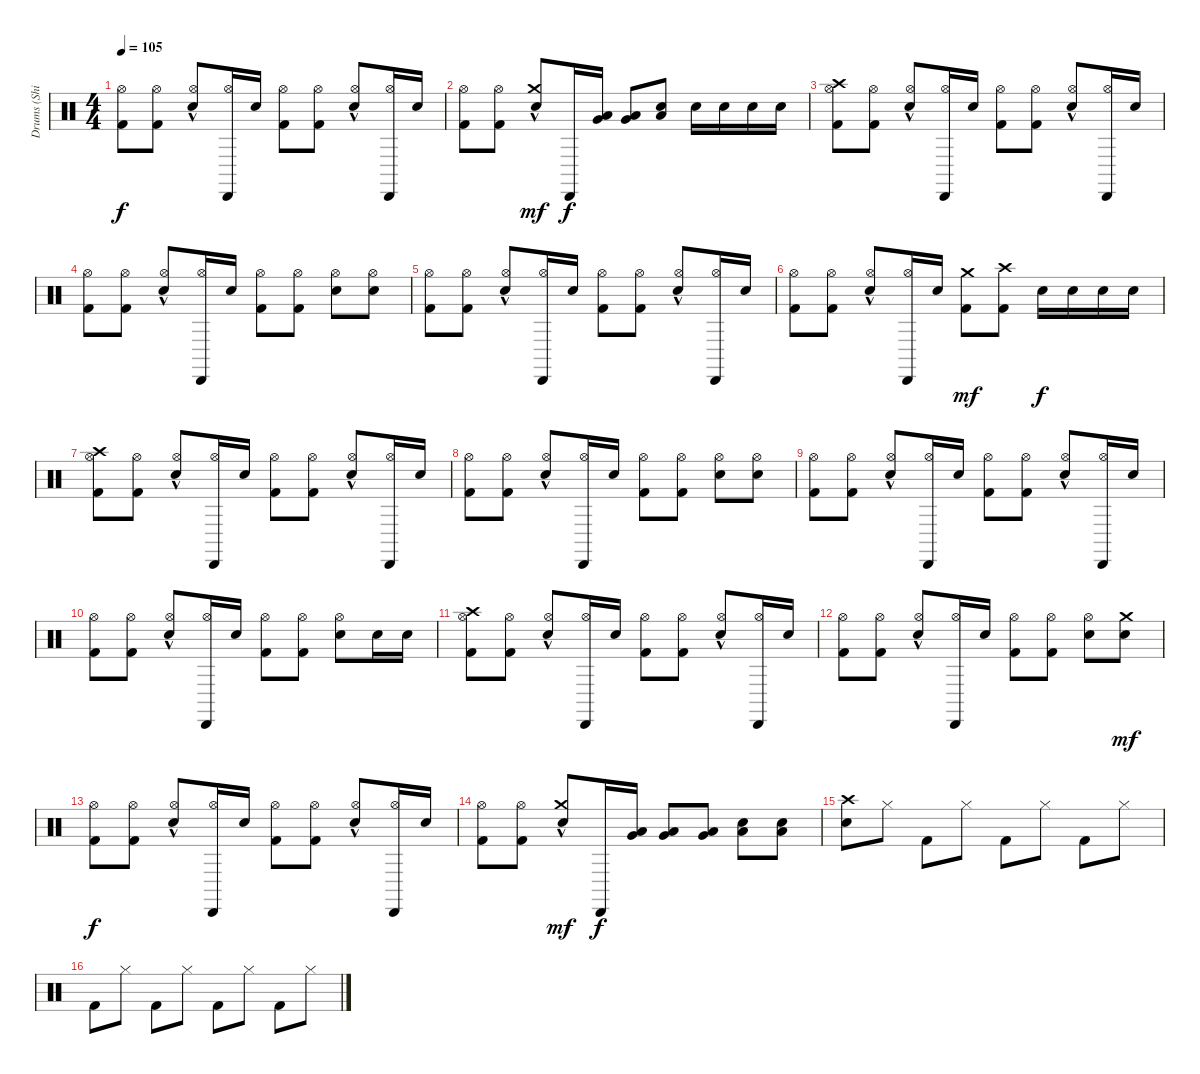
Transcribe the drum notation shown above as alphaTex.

\track ("Drums (Shinya)" "Drums (Shi") {instrument percussion}
\staff {score}
\articulation defaults
\ts (4 4)
\tempo 105
\clef neutral
\ks c
("Hi-Hat (open)" "Kick (hit) 2").8{dy f} ("Hi-Hat (open)" "Kick (hit) 2").8 ("Hi-Hat (open)" "Electric Snare (hit)"{hac}).8 ("Hi-Hat (open)" "Cabasa (hit)").16 "Electric Snare (hit)".16 ("Kick (hit) 2" "Hi-Hat (open)").8 ("Hi-Hat (open)" "Kick (hit) 2").8 ("Electric Snare (hit)"{hac} "Hi-Hat (open)").8 ("Hi-Hat (open)" "Cabasa (hit)").16 "Electric Snare (hit)".16 |
("Hi-Hat (open)" "Kick (hit) 2").8 ("Hi-Hat (open)" "Kick (hit) 2").8 ("Crash medium (hit)" "Electric Snare (hit)"{hac}).8{dy mf} "Cabasa (hit)".16{dy f} ("Low Tom (hit)" "Very Low Tom (hit)").16 ("Very Low Tom (hit)" "Low Floor Tom (hit)").8 ("Snare (hit) 2" "Low Floor Tom (hit)").8 "Electric Snare (hit)".16 "Electric Snare (hit)".16 "Electric Snare (hit)".16 "Electric Snare (hit)".16 |
("Hi-Hat (open)" "Crash high (hit)" "Kick (hit) 2").8 ("Hi-Hat (open)" "Kick (hit) 2").8 ("Hi-Hat (open)" "Electric Snare (hit)"{hac}).8 ("Hi-Hat (open)" "Cabasa (hit)").16 "Electric Snare (hit)".16 ("Kick (hit) 2" "Hi-Hat (open)").8 ("Hi-Hat (open)" "Kick (hit) 2").8 ("Electric Snare (hit)"{hac} "Hi-Hat (open)").8 ("Hi-Hat (open)" "Cabasa (hit)").16 "Electric Snare (hit)".16 |
("Hi-Hat (open)" "Kick (hit) 2").8 ("Hi-Hat (open)" "Kick (hit) 2").8 ("Electric Snare (hit)"{hac} "Hi-Hat (open)").8 ("Hi-Hat (open)" "Cabasa (hit)").16 "Electric Snare (hit)".16 ("Hi-Hat (open)" "Kick (hit) 2").8 ("Hi-Hat (open)" "Kick (hit) 2").8 ("Electric Snare (hit)" "Hi-Hat (open)").8 ("Hi-Hat (open)" "Electric Snare (hit)").8 |
("Kick (hit) 2" "Hi-Hat (open)").8 ("Hi-Hat (open)" "Kick (hit) 2").8 ("Electric Snare (hit)"{hac} "Hi-Hat (open)").8 ("Hi-Hat (open)" "Cabasa (hit)").16 "Electric Snare (hit)".16 ("Kick (hit) 2" "Hi-Hat (open)").8 ("Kick (hit) 2" "Hi-Hat (open)").8 ("Electric Snare (hit)"{hac} "Hi-Hat (open)").8 ("Hi-Hat (open)" "Cabasa (hit)").16 "Electric Snare (hit)".16 |
("Kick (hit) 2" "Hi-Hat (open)").8 ("Hi-Hat (open)" "Kick (hit) 2").8 ("Hi-Hat (open)" "Electric Snare (hit)"{hac}).8 ("Cabasa (hit)" "Hi-Hat (open)").16 "Electric Snare (hit)".16 ("Crash medium (hit)" "Kick (hit) 2").8{dy mf} ("Crash high (hit)" "Kick (hit) 2").8 "Electric Snare (hit)".16{dy f} "Electric Snare (hit)".16 "Electric Snare (hit)".16 "Electric Snare (hit)".16 |
("Hi-Hat (open)" "Crash high (hit)" "Kick (hit) 2").8 ("Hi-Hat (open)" "Kick (hit) 2").8 ("Hi-Hat (open)" "Electric Snare (hit)"{hac}).8 ("Hi-Hat (open)" "Cabasa (hit)").16 "Electric Snare (hit)".16 ("Kick (hit) 2" "Hi-Hat (open)").8 ("Hi-Hat (open)" "Kick (hit) 2").8 ("Electric Snare (hit)"{hac} "Hi-Hat (open)").8 ("Hi-Hat (open)" "Cabasa (hit)").16 "Electric Snare (hit)".16 |
("Hi-Hat (open)" "Kick (hit) 2").8 ("Hi-Hat (open)" "Kick (hit) 2").8 ("Electric Snare (hit)"{hac} "Hi-Hat (open)").8 ("Hi-Hat (open)" "Cabasa (hit)").16 "Electric Snare (hit)".16 ("Hi-Hat (open)" "Kick (hit) 2").8 ("Hi-Hat (open)" "Kick (hit) 2").8 ("Electric Snare (hit)" "Hi-Hat (open)").8 ("Hi-Hat (open)" "Electric Snare (hit)").8 |
("Hi-Hat (open)" "Kick (hit) 2").8 ("Hi-Hat (open)" "Kick (hit) 2").8 ("Hi-Hat (open)" "Electric Snare (hit)"{hac}).8 ("Hi-Hat (open)" "Cabasa (hit)").16 "Electric Snare (hit)".16 ("Kick (hit) 2" "Hi-Hat (open)").8 ("Hi-Hat (open)" "Kick (hit) 2").8 ("Electric Snare (hit)"{hac} "Hi-Hat (open)").8 ("Hi-Hat (open)" "Cabasa (hit)").16 "Electric Snare (hit)".16 |
("Hi-Hat (open)" "Kick (hit) 2").8 ("Hi-Hat (open)" "Kick (hit) 2").8 ("Electric Snare (hit)"{hac} "Hi-Hat (open)").8 ("Hi-Hat (open)" "Cabasa (hit)").16 "Electric Snare (hit)".16 ("Hi-Hat (open)" "Kick (hit) 2").8 ("Hi-Hat (open)" "Kick (hit) 2").8 ("Electric Snare (hit)" "Hi-Hat (open)").8 "Electric Snare (hit)".16 "Electric Snare (hit)".16 |
("Hi-Hat (open)" "Crash high (hit)" "Kick (hit) 2").8 ("Hi-Hat (open)" "Kick (hit) 2").8 ("Hi-Hat (open)" "Electric Snare (hit)"{hac}).8 ("Hi-Hat (open)" "Cabasa (hit)").16 "Electric Snare (hit)".16 ("Kick (hit) 2" "Hi-Hat (open)").8 ("Hi-Hat (open)" "Kick (hit) 2").8 ("Electric Snare (hit)"{hac} "Hi-Hat (open)").8 ("Hi-Hat (open)" "Cabasa (hit)").16 "Electric Snare (hit)".16 |
("Hi-Hat (open)" "Kick (hit) 2").8 ("Hi-Hat (open)" "Kick (hit) 2").8 ("Electric Snare (hit)"{hac} "Hi-Hat (open)").8 ("Hi-Hat (open)" "Cabasa (hit)").16 "Electric Snare (hit)".16 ("Hi-Hat (open)" "Kick (hit) 2").8 ("Hi-Hat (open)" "Kick (hit) 2").8 ("Electric Snare (hit)" "Hi-Hat (open)").8 ("Crash medium (hit)" "Electric Snare (hit)").8{dy mf} |
("Hi-Hat (open)" "Kick (hit) 2").8{dy f} ("Hi-Hat (open)" "Kick (hit) 2").8 ("Hi-Hat (open)" "Electric Snare (hit)"{hac}).8 ("Hi-Hat (open)" "Cabasa (hit)").16 "Electric Snare (hit)".16 ("Kick (hit) 2" "Hi-Hat (open)").8 ("Hi-Hat (open)" "Kick (hit) 2").8 ("Electric Snare (hit)"{hac} "Hi-Hat (open)").8 ("Hi-Hat (open)" "Cabasa (hit)").16 "Electric Snare (hit)".16 |
("Hi-Hat (open)" "Kick (hit) 2").8 ("Hi-Hat (open)" "Kick (hit) 2").8 ("Crash medium (hit)" "Electric Snare (hit)"{hac}).8{dy mf} "Cabasa (hit)".16{dy f} ("Low Tom (hit)" "Very Low Tom (hit)").16 ("Very Low Tom (hit)" "Low Floor Tom (hit)").8 ("Very Low Tom (hit)" "Low Floor Tom (hit)").8 ("Snare (hit) 2" "Low Floor Tom (hit)").8 ("Snare (hit) 2" "Low Floor Tom (hit)").8 |
("Crash high (hit)" "Electric Snare (hit)").8 "Hi-Hat (closed)".8 "Kick (hit) 2".8 "Hi-Hat (closed)".8 "Kick (hit) 2".8 "Hi-Hat (closed)".8 "Kick (hit) 2".8 "Hi-Hat (closed)".8 |
"Kick (hit) 2".8 "Hi-Hat (closed)".8 "Kick (hit) 2".8 "Hi-Hat (closed)".8 "Kick (hit) 2".8 "Hi-Hat (closed)".8 "Kick (hit) 2".8 "Hi-Hat (closed)".8
